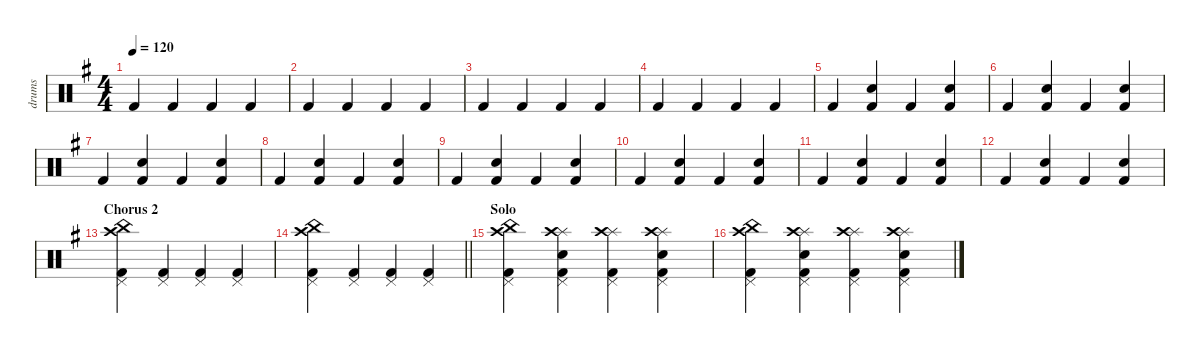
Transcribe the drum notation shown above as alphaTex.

\defaultSystemsLayout 4
\hideDynamics
\bracketExtendMode nobrackets
\otherSystemsTrackNameOrientation horizontal
\track ("drums" "drums") {instrument percussion}
\staff {score}
\articulation defaults
\ts (4 4)
\tempo 120
\clef neutral
\scale
1.07945
\ks eminor "Kick (hit) 2"{acc forcenatural}.4{dy mf beam Up} "Kick (hit) 2"{acc forcenatural}.4{beam Up} "Kick (hit) 2"{acc forcenatural}.4{beam Up} "Kick (hit) 2"{acc forcenatural}.4{beam Up}
|
\scale
0.973518 "Kick (hit) 2"{acc forcenatural}.4{beam Up} "Kick (hit) 2"{acc forcenatural}.4{beam Up} "Kick (hit) 2"{acc forcenatural}.4{beam Up} "Kick (hit) 2"{acc forcenatural}.4{beam Up} |
\scale
0.973518 "Kick (hit) 2"{acc forcenatural}.4{beam Up} "Kick (hit) 2"{acc forcenatural}.4{beam Up} "Kick (hit) 2"{acc forcenatural}.4{beam Up} "Kick (hit) 2"{acc forcenatural}.4{beam Up} |
\scale
0.973518 "Kick (hit) 2"{acc forcenatural}.4{beam Up} "Kick (hit) 2"{acc forcenatural}.4{beam Up} "Kick (hit) 2"{acc forcenatural}.4{beam Up} "Kick (hit) 2"{acc forcenatural}.4{beam Up} |
\scale
1.07945 "Kick (hit) 2"{acc forcenatural}.4{beam Up} ("Kick (hit) 2"{acc forcenatural} "Snare (hit) 2"{acc forcenatural}).4{beam Up} "Kick (hit) 2"{acc forcenatural}.4{beam Up} ("Kick (hit) 2"{acc forcenatural} "Snare (hit) 2"{acc forcenatural}).4{beam Up} |
\scale
0.973518 "Kick (hit) 2"{acc forcenatural}.4{beam Up} ("Kick (hit) 2"{acc forcenatural} "Snare (hit) 2"{acc forcenatural}).4{beam Up} "Kick (hit) 2"{acc forcenatural}.4{beam Up} ("Kick (hit) 2"{acc forcenatural} "Snare (hit) 2"{acc forcenatural}).4{beam Up} |
\scale
0.973518 "Kick (hit) 2"{acc forcenatural}.4{beam Up} ("Kick (hit) 2"{acc forcenatural} "Snare (hit) 2"{acc forcenatural}).4{beam Up} "Kick (hit) 2"{acc forcenatural}.4{beam Up} ("Kick (hit) 2"{acc forcenatural} "Snare (hit) 2"{acc forcenatural}).4{beam Up} |
\scale
0.973518 "Kick (hit) 2"{acc forcenatural}.4{beam Up} ("Kick (hit) 2"{acc forcenatural} "Snare (hit) 2"{acc forcenatural}).4{beam Up} "Kick (hit) 2"{acc forcenatural}.4{beam Up} ("Kick (hit) 2"{acc forcenatural} "Snare (hit) 2"{acc forcenatural}).4{beam Up} |
\scale
1.07945 "Kick (hit) 2"{acc forcenatural}.4{beam Up} ("Kick (hit) 2"{acc forcenatural} "Snare (hit) 2"{acc forcenatural}).4{beam Up} "Kick (hit) 2"{acc forcenatural}.4{beam Up} ("Kick (hit) 2"{acc forcenatural} "Snare (hit) 2"{acc forcenatural}).4{beam Up} |
\scale
0.973518 "Kick (hit) 2"{acc forcenatural}.4{beam Up} ("Kick (hit) 2"{acc forcenatural} "Snare (hit) 2"{acc forcenatural}).4{beam Up} "Kick (hit) 2"{acc forcenatural}.4{beam Up} ("Kick (hit) 2"{acc forcenatural} "Snare (hit) 2"{acc forcenatural}).4{beam Up} |
\scale
0.973518 "Kick (hit) 2"{acc forcenatural}.4{beam Up} ("Kick (hit) 2"{acc forcenatural} "Snare (hit) 2"{acc forcenatural}).4{beam Up} "Kick (hit) 2"{acc forcenatural}.4{beam Up} ("Kick (hit) 2"{acc forcenatural} "Snare (hit) 2"{acc forcenatural}).4{beam Up} |
\scale
0.973518 "Kick (hit) 2"{acc forcenatural}.4{beam Up} ("Kick (hit) 2"{acc forcenatural} "Snare (hit) 2"{acc forcenatural}).4{beam Up} "Kick (hit) 2"{acc forcenatural}.4{beam Up} ("Kick (hit) 2"{acc forcenatural} "Snare (hit) 2"{acc forcenatural}).4{beam Up} |
\section ("" "Chorus 2")
\scale
1.07945 ("Kick (hit) 2"{acc forcenatural} "China (hit)"{acc forcenatural} "Crash high (hit)"{acc forcenatural} "Pedal Hi-Hat (hit)"{acc forcenatural}).4{beam Down} ("Kick (hit) 2"{acc forcenatural} "Pedal Hi-Hat (hit)"{acc forcenatural}).4{beam Up} ("Kick (hit) 2"{acc forcenatural} "Pedal Hi-Hat (hit)"{acc forcenatural}).4{beam Up} ("Kick (hit) 2"{acc forcenatural} "Pedal Hi-Hat (hit)"{acc forcenatural}).4{beam Up} |
\scale
0.973518
\barLineRight lightlight
("Kick (hit) 2"{acc forcenatural} "China (hit)"{acc forcenatural} "Crash high (hit)"{acc forcenatural} "Pedal Hi-Hat (hit)"{acc forcenatural}).4{beam Down} ("Kick (hit) 2"{acc forcenatural} "Pedal Hi-Hat (hit)"{acc forcenatural}).4{beam Up} ("Kick (hit) 2"{acc forcenatural} "Pedal Hi-Hat (hit)"{acc forcenatural}).4{beam Up} ("Kick (hit) 2"{acc forcenatural} "Pedal Hi-Hat (hit)"{acc forcenatural}).4{beam Up} |
\section ("" "Solo")
\scale
0.973518 ("Kick (hit) 2"{acc forcenatural} "China (hit)"{acc forcenatural} "Crash high (hit)"{acc forcenatural} "Pedal Hi-Hat (hit)"{acc forcenatural}).4{beam Down} ("Kick (hit) 2"{acc forcenatural} "Pedal Hi-Hat (hit)"{acc forcenatural} "Snare (hit) 2"{acc forcenatural} "Splash (hit)"{acc forcenatural} "Crash high (hit)"{acc forcenatural}).4{beam Down} ("Kick (hit) 2"{acc forcenatural} "Pedal Hi-Hat (hit)"{acc forcenatural} "Splash (hit)"{acc forcenatural} "Crash high (hit)"{acc forcenatural}).4{beam Down} ("Kick (hit) 2"{acc forcenatural} "Pedal Hi-Hat (hit)"{acc forcenatural} "Snare (hit) 2"{acc forcenatural} "Splash (hit)"{acc forcenatural} "Crash high (hit)"{acc forcenatural}).4{beam Down} |
\scale
0.973518 ("Kick (hit) 2"{acc forcenatural} "China (hit)"{acc forcenatural} "Crash high (hit)"{acc forcenatural} "Pedal Hi-Hat (hit)"{acc forcenatural}).4{beam Down} ("Kick (hit) 2"{acc forcenatural} "Pedal Hi-Hat (hit)"{acc forcenatural} "Snare (hit) 2"{acc forcenatural} "Splash (hit)"{acc forcenatural} "Crash high (hit)"{acc forcenatural}).4{beam Down} ("Kick (hit) 2"{acc forcenatural} "Pedal Hi-Hat (hit)"{acc forcenatural} "Splash (hit)"{acc forcenatural} "Crash high (hit)"{acc forcenatural}).4{beam Down} ("Kick (hit) 2"{acc forcenatural} "Pedal Hi-Hat (hit)"{acc forcenatural} "Snare (hit) 2"{acc forcenatural} "Splash (hit)"{acc forcenatural} "Crash high (hit)"{acc forcenatural}).4{beam Down}
